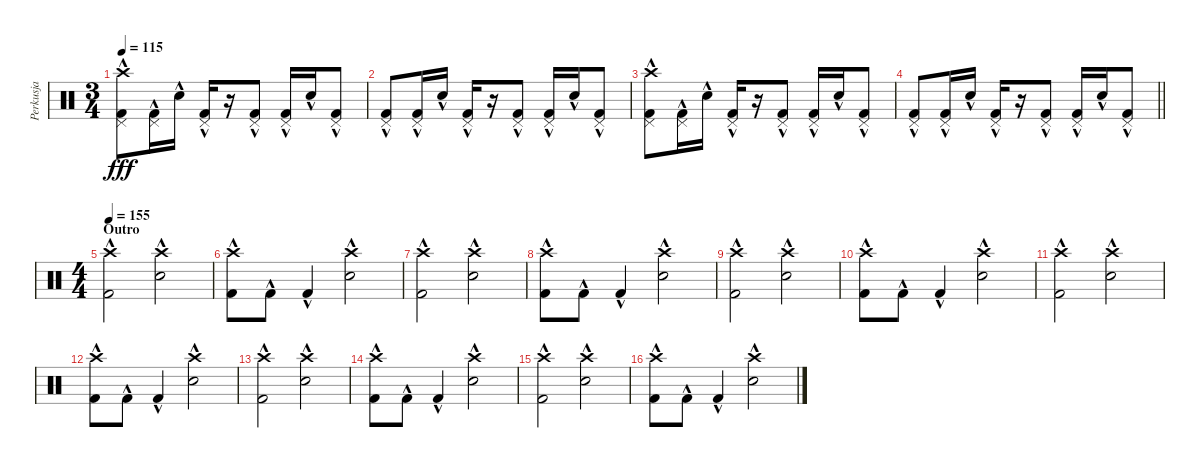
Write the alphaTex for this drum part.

\track ("Perkusja" "Perkusja") {instrument percussion}
\staff {score}
\articulation defaults
\ts (3 4)
\tempo 115
\clef neutral
\ks c
("Crash high (hit)" "Pedal Hi-Hat (hit)" "Kick (hit) 2"{hac}).8{dy fff} ("Pedal Hi-Hat (hit)" "Kick (hit) 2"{hac}).16 "Electric Snare (hit)"{hac}.16 ("Pedal Hi-Hat (hit)" "Kick (hit) 2"{hac}).16 r.16 ("Pedal Hi-Hat (hit)" "Kick (hit) 2"{hac}).8 ("Pedal Hi-Hat (hit)" "Kick (hit) 2"{hac}).16 "Electric Snare (hit)"{hac}.16 ("Pedal Hi-Hat (hit)" "Kick (hit) 2"{hac}).8 |
("Pedal Hi-Hat (hit)" "Kick (hit) 2"{hac}).8 ("Pedal Hi-Hat (hit)" "Kick (hit) 2"{hac}).16 "Electric Snare (hit)"{hac}.16 ("Pedal Hi-Hat (hit)" "Kick (hit) 2"{hac}).16 r.16 ("Pedal Hi-Hat (hit)" "Kick (hit) 2"{hac}).8 ("Pedal Hi-Hat (hit)" "Kick (hit) 2"{hac}).16 "Electric Snare (hit)"{hac}.16 ("Pedal Hi-Hat (hit)" "Kick (hit) 2"{hac}).8 |
("Crash high (hit)" "Pedal Hi-Hat (hit)" "Kick (hit) 2"{hac}).8 ("Pedal Hi-Hat (hit)" "Kick (hit) 2"{hac}).16 "Electric Snare (hit)"{hac}.16 ("Pedal Hi-Hat (hit)" "Kick (hit) 2"{hac}).16 r.16 ("Pedal Hi-Hat (hit)" "Kick (hit) 2"{hac}).8 ("Pedal Hi-Hat (hit)" "Kick (hit) 2"{hac}).16 "Electric Snare (hit)"{hac}.16 ("Pedal Hi-Hat (hit)" "Kick (hit) 2"{hac}).8 |
\barLineRight lightlight
("Pedal Hi-Hat (hit)" "Kick (hit) 2"{hac}).8 ("Pedal Hi-Hat (hit)" "Kick (hit) 2"{hac}).16 "Electric Snare (hit)"{hac}.16 ("Pedal Hi-Hat (hit)" "Kick (hit) 2"{hac}).16 r.16 ("Pedal Hi-Hat (hit)" "Kick (hit) 2"{hac}).8 ("Pedal Hi-Hat (hit)" "Kick (hit) 2"{hac}).16 "Electric Snare (hit)"{hac}.16 ("Pedal Hi-Hat (hit)" "Kick (hit) 2"{hac}).8 |
\ts (4 4)
\section ("" "Outro ")
\tempo 155
("Crash high (hit)" "Kick (hit) 2"{hac}).2 ("Crash high (hit)" "Electric Snare (hit)"{hac}).2 |
("Crash high (hit)" "Kick (hit) 2"{hac}).8 "Kick (hit) 2"{hac}.8 "Kick (hit) 2"{hac}.4 ("Crash high (hit)" "Electric Snare (hit)"{hac}).2 |
("Crash high (hit)" "Kick (hit) 2"{hac}).2 ("Crash high (hit)" "Electric Snare (hit)"{hac}).2 |
("Crash high (hit)" "Kick (hit) 2"{hac}).8 "Kick (hit) 2"{hac}.8 "Kick (hit) 2"{hac}.4 ("Crash high (hit)" "Electric Snare (hit)"{hac}).2 |
("Crash high (hit)" "Kick (hit) 2"{hac}).2 ("Crash high (hit)" "Electric Snare (hit)"{hac}).2 |
("Crash high (hit)" "Kick (hit) 2"{hac}).8 "Kick (hit) 2"{hac}.8 "Kick (hit) 2"{hac}.4 ("Crash high (hit)" "Electric Snare (hit)"{hac}).2 |
("Crash high (hit)" "Kick (hit) 2"{hac}).2 ("Crash high (hit)" "Electric Snare (hit)"{hac}).2 |
("Crash high (hit)" "Kick (hit) 2"{hac}).8 "Kick (hit) 2"{hac}.8 "Kick (hit) 2"{hac}.4 ("Crash high (hit)" "Electric Snare (hit)"{hac}).2 |
("Crash high (hit)" "Kick (hit) 2"{hac}).2 ("Crash high (hit)" "Electric Snare (hit)"{hac}).2 |
("Crash high (hit)" "Kick (hit) 2"{hac}).8 "Kick (hit) 2"{hac}.8 "Kick (hit) 2"{hac}.4 ("Crash high (hit)" "Electric Snare (hit)"{hac}).2 |
("Crash high (hit)" "Kick (hit) 2"{hac}).2 ("Crash high (hit)" "Electric Snare (hit)"{hac}).2 |
("Crash high (hit)" "Kick (hit) 2"{hac}).8 "Kick (hit) 2"{hac}.8 "Kick (hit) 2"{hac}.4 ("Crash high (hit)" "Electric Snare (hit)"{hac}).2
